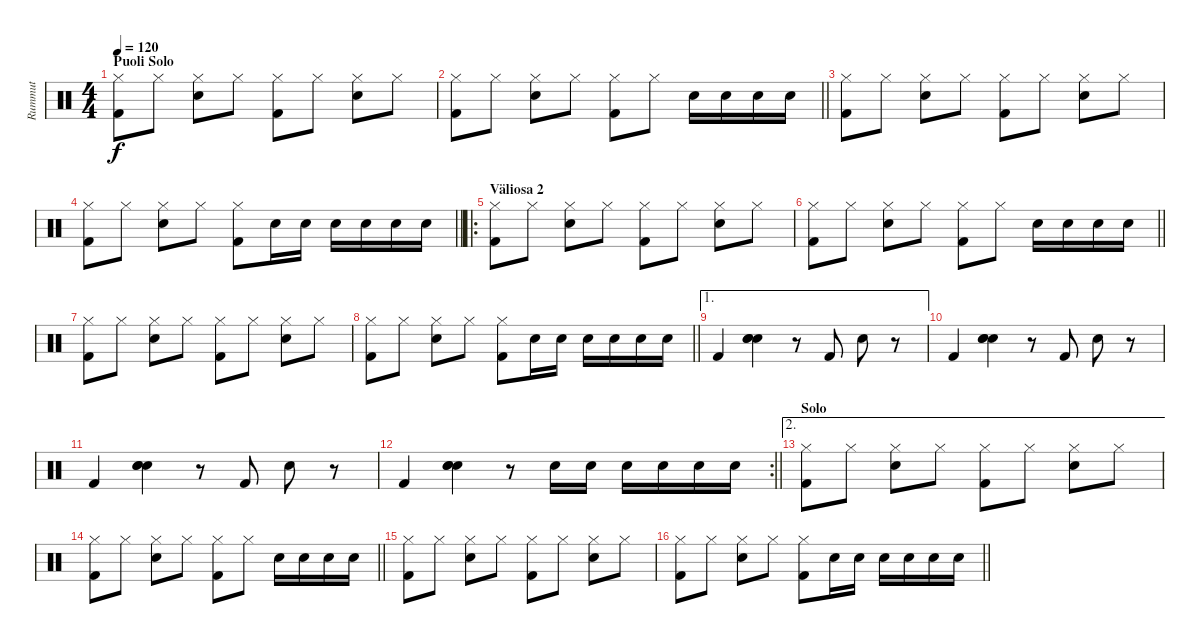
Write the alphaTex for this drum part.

\track ("Rummut" "Rummut") {instrument percussion}
\staff {score}
\articulation defaults
\ts (4 4)
\section ("" "Puoli Solo")
\tempo 120
\clef neutral
\ks c
("Hi-Hat (closed)" "Kick (hit) 2").8{dy f} "Hi-Hat (closed)".8 ("Hi-Hat (closed)" "Electric Snare (hit)").8 "Hi-Hat (closed)".8 ("Hi-Hat (closed)" "Kick (hit) 2").8 "Hi-Hat (closed)".8 ("Hi-Hat (closed)" "Electric Snare (hit)").8 "Hi-Hat (closed)".8 |
\barLineRight lightlight
("Hi-Hat (closed)" "Kick (hit) 2").8 "Hi-Hat (closed)".8 ("Hi-Hat (closed)" "Electric Snare (hit)").8 "Hi-Hat (closed)".8 ("Hi-Hat (closed)" "Kick (hit) 2").8 "Hi-Hat (closed)".8 "Electric Snare (hit)".16 "Electric Snare (hit)".16 "Electric Snare (hit)".16 "Electric Snare (hit)".16 |
("Hi-Hat (closed)" "Kick (hit) 2").8 "Hi-Hat (closed)".8 ("Hi-Hat (closed)" "Electric Snare (hit)").8 "Hi-Hat (closed)".8 ("Hi-Hat (closed)" "Kick (hit) 2").8 "Hi-Hat (closed)".8 ("Hi-Hat (closed)" "Electric Snare (hit)").8 "Hi-Hat (closed)".8 |
\barLineRight lightlight
("Hi-Hat (closed)" "Kick (hit) 2").8 "Hi-Hat (closed)".8 ("Hi-Hat (closed)" "Electric Snare (hit)").8 "Hi-Hat (closed)".8 ("Hi-Hat (closed)" "Kick (hit) 2").8 "Electric Snare (hit)".16 "Electric Snare (hit)".16 "Electric Snare (hit)".16 "Electric Snare (hit)".16 "Electric Snare (hit)".16 "Electric Snare (hit)".16 |
\ro
\section ("" "Väliosa 2")
("Hi-Hat (closed)" "Kick (hit) 2").8 "Hi-Hat (closed)".8 ("Hi-Hat (closed)" "Electric Snare (hit)").8 "Hi-Hat (closed)".8 ("Hi-Hat (closed)" "Kick (hit) 2").8 "Hi-Hat (closed)".8 ("Hi-Hat (closed)" "Electric Snare (hit)").8 "Hi-Hat (closed)".8 |
\barLineRight lightlight
("Hi-Hat (closed)" "Kick (hit) 2").8 "Hi-Hat (closed)".8 ("Hi-Hat (closed)" "Electric Snare (hit)").8 "Hi-Hat (closed)".8 ("Hi-Hat (closed)" "Kick (hit) 2").8 "Hi-Hat (closed)".8 "Electric Snare (hit)".16 "Electric Snare (hit)".16 "Electric Snare (hit)".16 "Electric Snare (hit)".16 |
("Hi-Hat (closed)" "Kick (hit) 2").8 "Hi-Hat (closed)".8 ("Hi-Hat (closed)" "Electric Snare (hit)").8 "Hi-Hat (closed)".8 ("Hi-Hat (closed)" "Kick (hit) 2").8 "Hi-Hat (closed)".8 ("Hi-Hat (closed)" "Electric Snare (hit)").8 "Hi-Hat (closed)".8 |
\barLineRight lightlight
("Hi-Hat (closed)" "Kick (hit) 2").8 "Hi-Hat (closed)".8 ("Hi-Hat (closed)" "Electric Snare (hit)").8 "Hi-Hat (closed)".8 ("Hi-Hat (closed)" "Kick (hit) 2").8 "Electric Snare (hit)".16 "Electric Snare (hit)".16 "Electric Snare (hit)".16 "Electric Snare (hit)".16 "Electric Snare (hit)".16 "Electric Snare (hit)".16 |
\ae 1 "Kick (hit) 2".4
("Electric Snare (hit)" "Electric Snare (hit)" "Electric Snare (hit)").4 r.8 "Kick (hit) 2".8 "Electric Snare (hit)".8 r.8 |
"Kick (hit) 2".4 ("Electric Snare (hit)" "Electric Snare (hit)" "Electric Snare (hit)").4 r.8 "Kick (hit) 2".8 "Electric Snare (hit)".8 r.8 |
"Kick (hit) 2".4 ("Electric Snare (hit)" "Electric Snare (hit)" "Electric Snare (hit)").4 r.8 "Kick (hit) 2".8 "Electric Snare (hit)".8 r.8 |
\rc 2
\barLineRight lightlight "Kick (hit) 2".4
("Electric Snare (hit)" "Electric Snare (hit)" "Electric Snare (hit)").4 r.8 "Electric Snare (hit)".16 "Electric Snare (hit)".16 "Electric Snare (hit)".16 "Electric Snare (hit)".16 "Electric Snare (hit)".16 "Electric Snare (hit)".16 |
\ae 2
\section ("" "Solo")
("Hi-Hat (closed)" "Kick (hit) 2").8 "Hi-Hat (closed)".8 ("Hi-Hat (closed)" "Electric Snare (hit)").8 "Hi-Hat (closed)".8 ("Hi-Hat (closed)" "Kick (hit) 2").8 "Hi-Hat (closed)".8 ("Hi-Hat (closed)" "Electric Snare (hit)").8 "Hi-Hat (closed)".8 |
\barLineRight lightlight
("Hi-Hat (closed)" "Kick (hit) 2").8 "Hi-Hat (closed)".8 ("Hi-Hat (closed)" "Electric Snare (hit)").8 "Hi-Hat (closed)".8 ("Hi-Hat (closed)" "Kick (hit) 2").8 "Hi-Hat (closed)".8 "Electric Snare (hit)".16 "Electric Snare (hit)".16 "Electric Snare (hit)".16 "Electric Snare (hit)".16 |
("Hi-Hat (closed)" "Kick (hit) 2").8 "Hi-Hat (closed)".8 ("Hi-Hat (closed)" "Electric Snare (hit)").8 "Hi-Hat (closed)".8 ("Hi-Hat (closed)" "Kick (hit) 2").8 "Hi-Hat (closed)".8 ("Hi-Hat (closed)" "Electric Snare (hit)").8 "Hi-Hat (closed)".8 |
\barLineRight lightlight
("Hi-Hat (closed)" "Kick (hit) 2").8 "Hi-Hat (closed)".8 ("Hi-Hat (closed)" "Electric Snare (hit)").8 "Hi-Hat (closed)".8 ("Hi-Hat (closed)" "Kick (hit) 2").8 "Electric Snare (hit)".16 "Electric Snare (hit)".16 "Electric Snare (hit)".16 "Electric Snare (hit)".16 "Electric Snare (hit)".16 "Electric Snare (hit)".16
